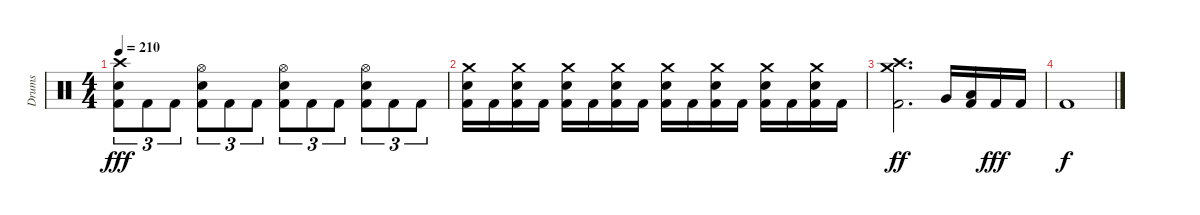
\track ("Drums" "Drums") {instrument percussion}
\staff {score}
\articulation defaults
\ts (4 4)
\tempo 210
\clef neutral
\ks c
("Crash high (hit)" "Snare (hit) 2" "Kick (hit) 2").8{tu (3 2) dy fff} "Kick (hit) 2".8{tu (3 2)} "Kick (hit) 2".8{tu (3 2)} ("Hi-Hat (open)" "Snare (hit) 2" "Kick (hit) 2").8{tu (3 2)} "Kick (hit) 2".8{tu (3 2)} "Kick (hit) 2".8{tu (3 2)} ("Hi-Hat (open)" "Snare (hit) 2" "Kick (hit) 2").8{tu (3 2)} "Kick (hit) 2".8{tu (3 2)} "Kick (hit) 2".8{tu (3 2)} ("Hi-Hat (open)" "Snare (hit) 2" "Kick (hit) 2").8{tu (3 2)} "Kick (hit) 2".8{tu (3 2)} "Kick (hit) 2".8{tu (3 2)} |
("Crash medium (hit)" "Snare (hit) 2" "Kick (hit) 2").16 "Kick (hit) 2".16 ("Crash medium (hit)" "Snare (hit) 2" "Kick (hit) 2").16 "Kick (hit) 2".16 ("Crash medium (hit)" "Snare (hit) 2" "Kick (hit) 2").16 "Kick (hit) 2".16 ("Crash medium (hit)" "Snare (hit) 2" "Kick (hit) 2").16 "Kick (hit) 2".16 ("Crash medium (hit)" "Snare (hit) 2" "Kick (hit) 2").16 "Kick (hit) 2".16 ("Crash medium (hit)" "Snare (hit) 2" "Kick (hit) 2").16 "Kick (hit) 2".16 ("Crash medium (hit)" "Snare (hit) 2" "Kick (hit) 2").16 "Kick (hit) 2".16 ("Crash medium (hit)" "Snare (hit) 2" "Kick (hit) 2").16 "Kick (hit) 2".16 |
("Crash medium (hit)" "Crash high (hit)" "Kick (hit) 2").2{d dy ff} "Very Low Tom (hit)".16 ("Low Tom (hit)" "Kick (hit) 2").16 "Kick (hit) 2".16{dy fff} "Kick (hit) 2".16 |
"Kick (hit) 2".1{dy f}
